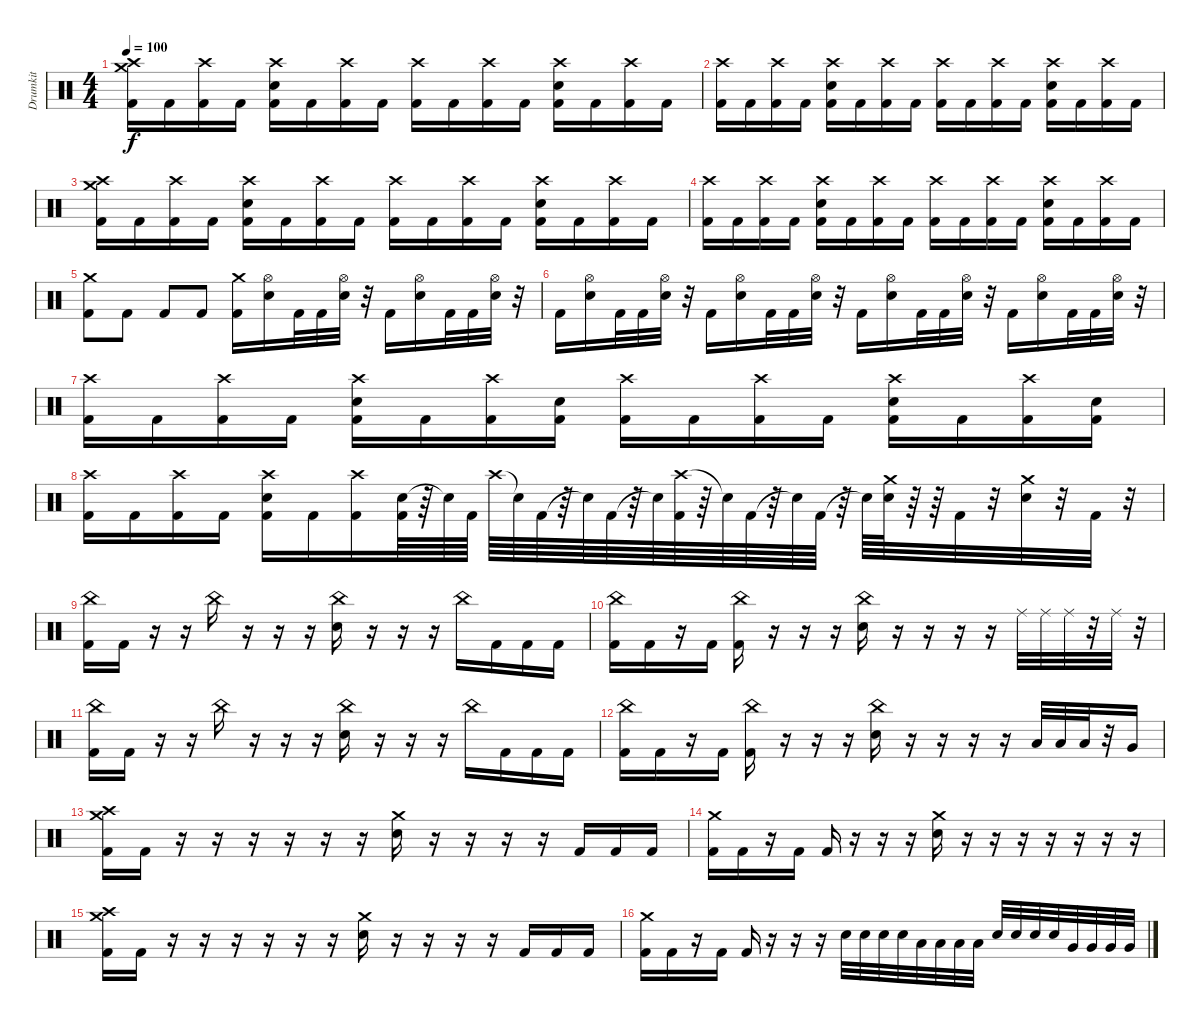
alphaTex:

\track ("Drumkit" "Drumkit") {instrument percussion}
\staff {score}
\articulation defaults
\ts (4 4)
\tempo 100
\clef neutral
\ks c
("Crash medium (hit)" "Crash high (hit)" "Kick (hit) 2").16{dy f} "Kick (hit) 2".16 ("Crash high (hit)" "Kick (hit) 2").16 "Kick (hit) 2".16 ("Crash high (hit)" "Electric Snare (hit)" "Kick (hit) 2").16 "Kick (hit) 2".16 ("Crash high (hit)" "Kick (hit) 2").16 "Kick (hit) 2".16 ("Crash high (hit)" "Kick (hit) 2").16 "Kick (hit) 2".16 ("Crash high (hit)" "Kick (hit) 2").16 "Kick (hit) 2".16 ("Crash high (hit)" "Electric Snare (hit)" "Kick (hit) 2").16 "Kick (hit) 2".16 ("Crash high (hit)" "Kick (hit) 2").16 "Kick (hit) 2".16 |
("Crash high (hit)" "Kick (hit) 2").16 "Kick (hit) 2".16 ("Crash high (hit)" "Kick (hit) 2").16 "Kick (hit) 2".16 ("Crash high (hit)" "Electric Snare (hit)" "Kick (hit) 2").16 "Kick (hit) 2".16 ("Crash high (hit)" "Kick (hit) 2").16 "Kick (hit) 2".16 ("Crash high (hit)" "Kick (hit) 2").16 "Kick (hit) 2".16 ("Crash high (hit)" "Kick (hit) 2").16 "Kick (hit) 2".16 ("Crash high (hit)" "Electric Snare (hit)" "Kick (hit) 2").16 "Kick (hit) 2".16 ("Crash high (hit)" "Kick (hit) 2").16 "Kick (hit) 2".16 |
("Crash medium (hit)" "Crash high (hit)" "Kick (hit) 2").16 "Kick (hit) 2".16 ("Crash high (hit)" "Kick (hit) 2").16 "Kick (hit) 2".16 ("Crash high (hit)" "Electric Snare (hit)" "Kick (hit) 2").16 "Kick (hit) 2".16 ("Crash high (hit)" "Kick (hit) 2").16 "Kick (hit) 2".16 ("Crash high (hit)" "Kick (hit) 2").16 "Kick (hit) 2".16 ("Crash high (hit)" "Kick (hit) 2").16 "Kick (hit) 2".16 ("Crash high (hit)" "Electric Snare (hit)" "Kick (hit) 2").16 "Kick (hit) 2".16 ("Crash high (hit)" "Kick (hit) 2").16 "Kick (hit) 2".16 |
("Crash high (hit)" "Kick (hit) 2").16 "Kick (hit) 2".16 ("Crash high (hit)" "Kick (hit) 2").16 "Kick (hit) 2".16 ("Crash high (hit)" "Electric Snare (hit)" "Kick (hit) 2").16 "Kick (hit) 2".16 ("Crash high (hit)" "Kick (hit) 2").16 "Kick (hit) 2".16 ("Crash high (hit)" "Kick (hit) 2").16 "Kick (hit) 2".16 ("Crash high (hit)" "Kick (hit) 2").16 "Kick (hit) 2".16 ("Crash high (hit)" "Electric Snare (hit)" "Kick (hit) 2").16 "Kick (hit) 2".16 ("Crash high (hit)" "Kick (hit) 2").16 "Kick (hit) 2".16 |
("Crash medium (hit)" "Kick (hit) 2").8 "Kick (hit) 2".8 "Kick (hit) 2".8 "Kick (hit) 2".8 ("Crash medium (hit)" "Kick (hit) 2").16 ("Hi-Hat (open)" "Electric Snare (hit)").16 "Kick (hit) 2".32 "Kick (hit) 2".32 ("Hi-Hat (open)" "Electric Snare (hit)").32 r.32 "Kick (hit) 2".16 ("Hi-Hat (open)" "Electric Snare (hit)").16 "Kick (hit) 2".32 "Kick (hit) 2".32 ("Hi-Hat (open)" "Electric Snare (hit)").32 r.32 |
"Kick (hit) 2".16 ("Hi-Hat (open)" "Electric Snare (hit)").16 "Kick (hit) 2".32 "Kick (hit) 2".32 ("Hi-Hat (open)" "Electric Snare (hit)").32 r.32 "Kick (hit) 2".16 ("Hi-Hat (open)" "Electric Snare (hit)").16 "Kick (hit) 2".32 "Kick (hit) 2".32 ("Hi-Hat (open)" "Electric Snare (hit)").32 r.32 "Kick (hit) 2".16 ("Hi-Hat (open)" "Electric Snare (hit)").16 "Kick (hit) 2".32 "Kick (hit) 2".32 ("Hi-Hat (open)" "Electric Snare (hit)").32 r.32 "Kick (hit) 2".16 ("Hi-Hat (open)" "Electric Snare (hit)").16 "Kick (hit) 2".32 "Kick (hit) 2".32 ("Hi-Hat (open)" "Electric Snare (hit)").32 r.32 |
("Crash high (hit)" "Kick (hit) 2").16 "Kick (hit) 2".16 ("Crash high (hit)" "Kick (hit) 2").16 "Kick (hit) 2".16 ("Crash high (hit)" "Electric Snare (hit)" "Kick (hit) 2").16 "Kick (hit) 2".16 ("Crash high (hit)" "Kick (hit) 2").16 ("Electric Snare (hit)" "Kick (hit) 2").16 ("Crash high (hit)" "Kick (hit) 2").16 "Kick (hit) 2".16 ("Crash high (hit)" "Kick (hit) 2").16 "Kick (hit) 2".16 ("Crash high (hit)" "Electric Snare (hit)" "Kick (hit) 2").16 "Kick (hit) 2".16 ("Crash high (hit)" "Kick (hit) 2").16 ("Electric Snare (hit)" "Kick (hit) 2").16 |
("Crash high (hit)" "Kick (hit) 2").16 "Kick (hit) 2".16 ("Crash high (hit)" "Kick (hit) 2").16 "Kick (hit) 2".16 ("Crash high (hit)" "Electric Snare (hit)" "Kick (hit) 2").16 "Kick (hit) 2".16 ("Crash high (hit)" "Kick (hit) 2").16 ("Electric Snare (hit)" "Kick (hit) 2").64 r.64 "Snare (hit)"{t}.64 "Kick (hit) 2".64 "Crash high (hit)".64 "Snare (hit)"{t}.64 "Kick (hit) 2".64 r.64 "Snare (hit)"{t}.64 "Kick (hit) 2".64 r.64 "Snare (hit)"{t}.64 ("Crash high (hit)" "Kick (hit) 2").64 r.64 "Snare (hit)"{t}.64 "Kick (hit) 2".64 r.64 "Snare (hit)"{t}.64 "Kick (hit) 2".64 r.64 "Snare (hit)"{t}.64 ("Crash medium (hit)" "Electric Snare (hit)").64 r.64 r.64 "Kick (hit) 2".32 r.32 ("Crash medium (hit)" "Electric Snare (hit)").32 r.32 "Kick (hit) 2".32 r.32 |
("China (hit)" "Kick (hit) 2").16 "Kick (hit) 2".16 r.16 r.16 "China (hit)".16 r.16 r.16 r.16 ("China (hit)" "Electric Snare (hit)").16 r.16 r.16 r.16 "China (hit)".16 "Kick (hit) 2".16 "Kick (hit) 2".16 "Kick (hit) 2".16 |
("China (hit)" "Kick (hit) 2").16 "Kick (hit) 2".16 r.16 "Kick (hit) 2".16 ("China (hit)" "Kick (hit) 2").16 r.16 r.16 r.16 ("China (hit)" "Electric Snare (hit)").16 r.16 r.16 r.16 r.16 "Ride (middle)".32 "Ride (middle)".32 "Ride (middle)".32 r.32 "Ride (middle)".32 r.32 |
("China (hit)" "Kick (hit) 2").16 "Kick (hit) 2".16 r.16 r.16 "China (hit)".16 r.16 r.16 r.16 ("China (hit)" "Electric Snare (hit)").16 r.16 r.16 r.16 "China (hit)".16 "Kick (hit) 2".16 "Kick (hit) 2".16 "Kick (hit) 2".16 |
("China (hit)" "Kick (hit) 2").16 "Kick (hit) 2".16 r.16 "Kick (hit) 2".16 ("China (hit)" "Kick (hit) 2").16 r.16 r.16 r.16 ("China (hit)" "Electric Snare (hit)").16 r.16 r.16 r.16 r.16 "Low Tom (hit)".32 "Low Tom (hit)".32 "Low Tom (hit)".32 r.32 "Very Low Tom (hit)".16 |
("Crash medium (hit)" "Crash high (hit)" "Kick (hit) 2").16 "Kick (hit) 2".16 r.16 r.16 r.16 r.16 r.16 r.16 ("Crash medium (hit)" "Electric Snare (hit)").16 r.16 r.16 r.16 r.16 "Kick (hit) 2".16 "Kick (hit) 2".16 "Kick (hit) 2".16 |
("Crash medium (hit)" "Kick (hit) 2").16 "Kick (hit) 2".16 r.16 "Kick (hit) 2".16 "Kick (hit) 2".16 r.16 r.16 r.16 ("Crash medium (hit)" "Electric Snare (hit)").16 r.16 r.16 r.16 r.16 r.16 r.16 r.16 |
("Crash medium (hit)" "Crash high (hit)" "Kick (hit) 2").16 "Kick (hit) 2".16 r.16 r.16 r.16 r.16 r.16 r.16 ("Crash medium (hit)" "Electric Snare (hit)").16 r.16 r.16 r.16 r.16 "Kick (hit) 2".16 "Kick (hit) 2".16 "Kick (hit) 2".16 |
("Crash medium (hit)" "Kick (hit) 2").16 "Kick (hit) 2".16 r.16 "Kick (hit) 2".16 "Kick (hit) 2".16 r.16 r.16 r.16 "Electric Snare (hit)".32 "Electric Snare (hit)".32 "Electric Snare (hit)".32 "Electric Snare (hit)".32 "Low Tom (hit)".32 "Low Tom (hit)".32 "Low Tom (hit)".32 "Low Tom (hit)".32 "Electric Snare (hit)".32 "Electric Snare (hit)".32 "Electric Snare (hit)".32 "Electric Snare (hit)".32 "Very Low Tom (hit)".32 "Very Low Tom (hit)".32 "Very Low Tom (hit)".32 "Very Low Tom (hit)".32
